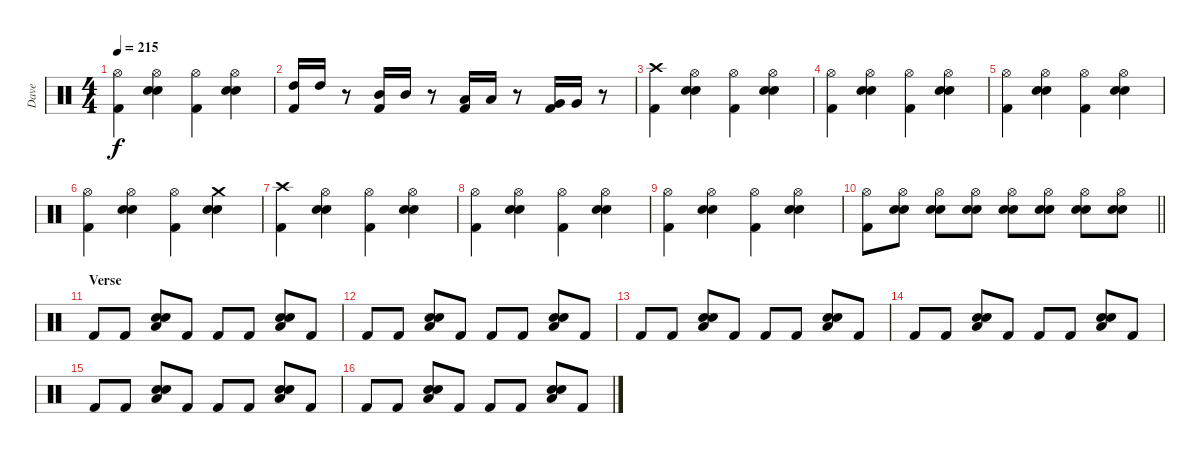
\track ("Dave" "Dave") {instrument percussion}
\staff {score}
\articulation defaults
\ts (4 4)
\tempo 215
\clef neutral
\ks c
("Hi-Hat (open)" "Kick (hit) 2").4{dy f} ("Hi-Hat (open)" "Electric Snare (hit)" "Electric Snare (hit)").4 ("Hi-Hat (open)" "Kick (hit) 2").4 ("Hi-Hat (open)" "Electric Snare (hit)" "Electric Snare (hit)").4 |
("Kick (hit) 2" "High Tom (hit)").16 "High Tom (hit)".16 r.8 ("Kick (hit) 2" "Mid Tom (hit)").16 "Mid Tom (hit)".16 r.8 ("Kick (hit) 2" "Low Tom (hit)").16 "Low Tom (hit)".16 r.8 ("Kick (hit) 2" "Very Low Tom (hit)").16 "Very Low Tom (hit)".16 r.8 |
("Crash high (hit)" "Kick (hit) 2").4 ("Hi-Hat (open)" "Electric Snare (hit)" "Electric Snare (hit)").4 ("Hi-Hat (open)" "Kick (hit) 2").4 ("Hi-Hat (open)" "Electric Snare (hit)" "Electric Snare (hit)").4 |
("Hi-Hat (open)" "Kick (hit) 2").4 ("Hi-Hat (open)" "Electric Snare (hit)" "Electric Snare (hit)").4 ("Hi-Hat (open)" "Kick (hit) 2").4 ("Hi-Hat (open)" "Electric Snare (hit)" "Electric Snare (hit)").4 |
("Hi-Hat (open)" "Kick (hit) 2").4 ("Hi-Hat (open)" "Electric Snare (hit)" "Electric Snare (hit)").4 ("Hi-Hat (open)" "Kick (hit) 2").4 ("Hi-Hat (open)" "Electric Snare (hit)" "Electric Snare (hit)").4 |
("Hi-Hat (open)" "Kick (hit) 2").4 ("Hi-Hat (open)" "Electric Snare (hit)" "Electric Snare (hit)").4 ("Hi-Hat (open)" "Kick (hit) 2").4 ("Crash medium (hit)" "Electric Snare (hit)" "Electric Snare (hit)").4 |
("Crash high (hit)" "Kick (hit) 2").4 ("Hi-Hat (open)" "Electric Snare (hit)" "Electric Snare (hit)").4 ("Hi-Hat (open)" "Kick (hit) 2").4 ("Hi-Hat (open)" "Electric Snare (hit)" "Electric Snare (hit)").4 |
("Hi-Hat (open)" "Kick (hit) 2").4 ("Hi-Hat (open)" "Electric Snare (hit)" "Electric Snare (hit)").4 ("Hi-Hat (open)" "Kick (hit) 2").4 ("Hi-Hat (open)" "Electric Snare (hit)" "Electric Snare (hit)").4 |
("Hi-Hat (open)" "Kick (hit) 2").4 ("Hi-Hat (open)" "Electric Snare (hit)" "Electric Snare (hit)").4 ("Hi-Hat (open)" "Kick (hit) 2").4 ("Hi-Hat (open)" "Electric Snare (hit)" "Electric Snare (hit)").4 |
\barLineRight lightlight
("Hi-Hat (open)" "Kick (hit) 2").8 ("Hi-Hat (open)" "Electric Snare (hit)" "Electric Snare (hit)").8 ("Hi-Hat (open)" "Electric Snare (hit)" "Electric Snare (hit)").8 ("Hi-Hat (open)" "Electric Snare (hit)" "Electric Snare (hit)").8 ("Hi-Hat (open)" "Electric Snare (hit)" "Electric Snare (hit)").8 ("Hi-Hat (open)" "Electric Snare (hit)" "Electric Snare (hit)").8 ("Hi-Hat (open)" "Electric Snare (hit)" "Electric Snare (hit)").8 ("Hi-Hat (open)" "Electric Snare (hit)" "Electric Snare (hit)").8 |
\section ("" "Verse")
"Kick (hit) 2".8 "Kick (hit) 2".8 ("Low Floor Tom (hit)" "Electric Snare (hit)" "Electric Snare (hit)").8 "Kick (hit) 2".8 "Kick (hit) 2".8 "Kick (hit) 2".8 ("Low Floor Tom (hit)" "Electric Snare (hit)" "Electric Snare (hit)").8 "Kick (hit) 2".8 |
"Kick (hit) 2".8 "Kick (hit) 2".8 ("Low Floor Tom (hit)" "Electric Snare (hit)" "Electric Snare (hit)").8 "Kick (hit) 2".8 "Kick (hit) 2".8 "Kick (hit) 2".8 ("Low Floor Tom (hit)" "Electric Snare (hit)" "Electric Snare (hit)").8 "Kick (hit) 2".8 |
"Kick (hit) 2".8 "Kick (hit) 2".8 ("Low Floor Tom (hit)" "Electric Snare (hit)" "Electric Snare (hit)").8 "Kick (hit) 2".8 "Kick (hit) 2".8 "Kick (hit) 2".8 ("Low Floor Tom (hit)" "Electric Snare (hit)" "Electric Snare (hit)").8 "Kick (hit) 2".8 |
"Kick (hit) 2".8 "Kick (hit) 2".8 ("Low Floor Tom (hit)" "Electric Snare (hit)" "Electric Snare (hit)").8 "Kick (hit) 2".8 "Kick (hit) 2".8 "Kick (hit) 2".8 ("Low Floor Tom (hit)" "Electric Snare (hit)" "Electric Snare (hit)").8 "Kick (hit) 2".8 |
"Kick (hit) 2".8 "Kick (hit) 2".8 ("Low Floor Tom (hit)" "Electric Snare (hit)" "Electric Snare (hit)").8 "Kick (hit) 2".8 "Kick (hit) 2".8 "Kick (hit) 2".8 ("Low Floor Tom (hit)" "Electric Snare (hit)" "Electric Snare (hit)").8 "Kick (hit) 2".8 |
"Kick (hit) 2".8 "Kick (hit) 2".8 ("Low Floor Tom (hit)" "Electric Snare (hit)" "Electric Snare (hit)").8 "Kick (hit) 2".8 "Kick (hit) 2".8 "Kick (hit) 2".8 ("Low Floor Tom (hit)" "Electric Snare (hit)" "Electric Snare (hit)").8 "Kick (hit) 2".8
